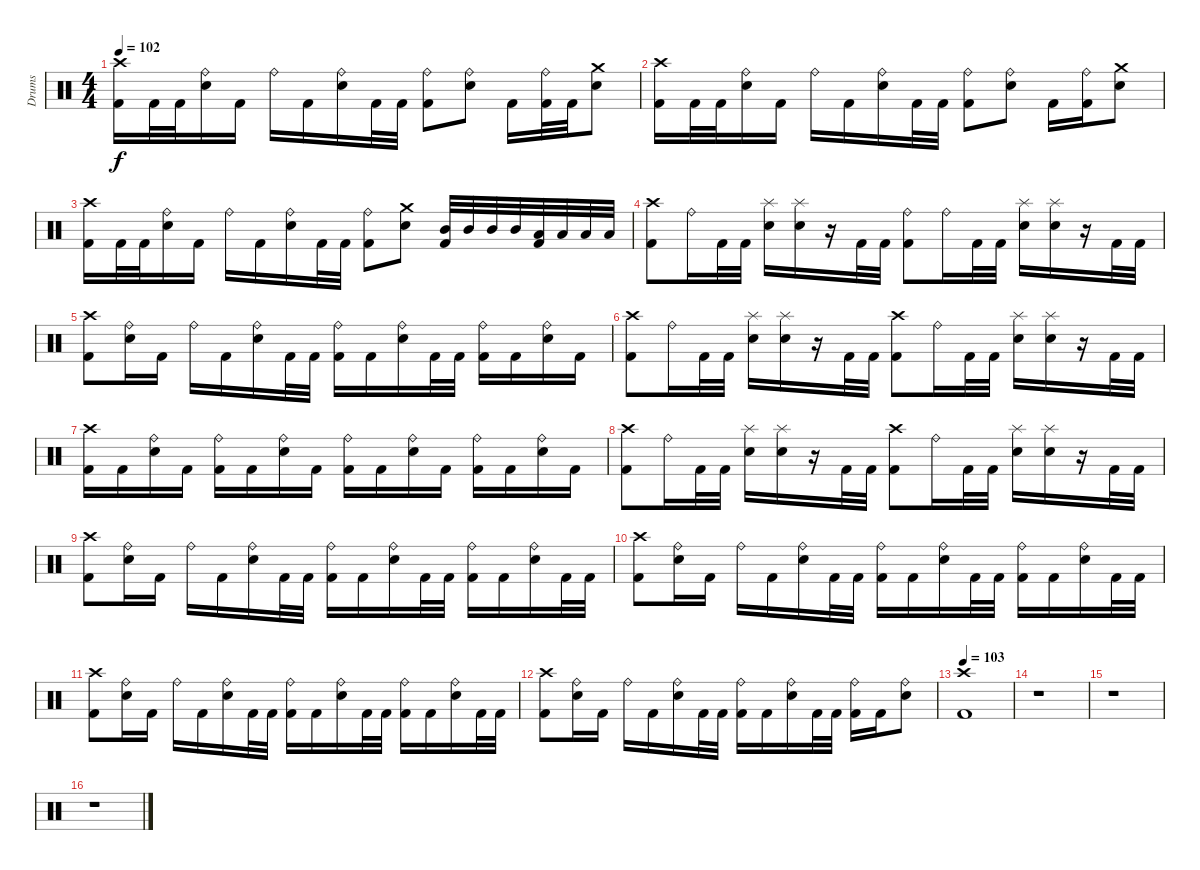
\track ("Drums" "Drums") {instrument percussion}
\staff {score}
\articulation defaults
\ts (4 4)
\tempo 102
\clef neutral
\ks c
("Crash high (hit)" "Kick (hit) 2").16{dy f} "Kick (hit) 2".32 "Kick (hit) 2".32 ("Ride (bell)" "Snare (hit) 2").16 "Kick (hit) 2".16 "Ride (bell)".16 "Kick (hit) 2".16 ("Ride (bell)" "Snare (hit) 2").16 "Kick (hit) 2".32 "Kick (hit) 2".32 ("Ride (bell)" "Kick (hit) 2").8 ("Ride (bell)" "Snare (hit) 2").8 "Kick (hit) 2".16 ("Ride (bell)" "Kick (hit) 2").32 "Kick (hit) 2".32 ("Crash medium (hit)" "Snare (hit) 2").8 |
("Crash high (hit)" "Kick (hit) 2").16 "Kick (hit) 2".32 "Kick (hit) 2".32 ("Ride (bell)" "Snare (hit) 2").16 "Kick (hit) 2".16 "Ride (bell)".16 "Kick (hit) 2".16 ("Ride (bell)" "Snare (hit) 2").16 "Kick (hit) 2".32 "Kick (hit) 2".32 ("Ride (bell)" "Kick (hit) 2").8 ("Ride (bell)" "Snare (hit) 2").8 "Kick (hit) 2".16 ("Ride (bell)" "Kick (hit) 2").16 ("Crash medium (hit)" "Snare (hit) 2").8 |
("Crash high (hit)" "Kick (hit) 2").16 "Kick (hit) 2".32 "Kick (hit) 2".32 ("Ride (bell)" "Snare (hit) 2").16 "Kick (hit) 2".16 "Ride (bell)".16 "Kick (hit) 2".16 ("Ride (bell)" "Snare (hit) 2").16 "Kick (hit) 2".32 "Kick (hit) 2".32 ("Ride (bell)" "Kick (hit) 2").8 ("Crash medium (hit)" "Snare (hit) 2").8 ("Mid Tom (hit)" "Kick (hit) 2").32 "Mid Tom (hit)".32 "Mid Tom (hit)".32 "Mid Tom (hit)".32 ("Low Tom (hit)" "Kick (hit) 2").32 "Low Tom (hit)".32 "Low Tom (hit)".32 "Low Tom (hit)".32 |
("Crash high (hit)" "Kick (hit) 2").8 "Ride (bell)".16 "Kick (hit) 2".32 "Kick (hit) 2".32 ("Splash (hit)" "Snare (hit) 2").16 ("Splash (hit)" "Snare (hit) 2").16 r.16 "Kick (hit) 2".32 "Kick (hit) 2".32 ("Ride (bell)" "Kick (hit) 2").8 "Ride (bell)".16 "Kick (hit) 2".32 "Kick (hit) 2".32 ("Splash (hit)" "Snare (hit) 2").16 ("Splash (hit)" "Snare (hit) 2").16 r.16 "Kick (hit) 2".32 "Kick (hit) 2".32 |
("Crash high (hit)" "Kick (hit) 2").8 ("Ride (bell)" "Snare (hit) 2").16 "Kick (hit) 2".16 "Ride (bell)".16 "Kick (hit) 2".16 ("Ride (bell)" "Snare (hit) 2").16 "Kick (hit) 2".32 "Kick (hit) 2".32 ("Ride (bell)" "Kick (hit) 2").16 "Kick (hit) 2".16 ("Ride (bell)" "Snare (hit) 2").16 "Kick (hit) 2".32 "Kick (hit) 2".32 ("Ride (bell)" "Kick (hit) 2").16 "Kick (hit) 2".16 ("Ride (bell)" "Snare (hit) 2").16 "Kick (hit) 2".16 |
("Crash high (hit)" "Kick (hit) 2").8 "Ride (bell)".16 "Kick (hit) 2".32 "Kick (hit) 2".32 ("Splash (hit)" "Snare (hit) 2").16 ("Splash (hit)" "Snare (hit) 2").16 r.16 "Kick (hit) 2".32 "Kick (hit) 2".32 ("Crash high (hit)" "Kick (hit) 2").8 "Ride (bell)".16 "Kick (hit) 2".32 "Kick (hit) 2".32 ("Splash (hit)" "Snare (hit) 2").16 ("Splash (hit)" "Snare (hit) 2").16 r.16 "Kick (hit) 2".32 "Kick (hit) 2".32 |
("Crash high (hit)" "Kick (hit) 2").16 "Kick (hit) 2".16 ("Ride (bell)" "Snare (hit) 2").16 "Kick (hit) 2".16 ("Ride (bell)" "Kick (hit) 2").16 "Kick (hit) 2".16 ("Ride (bell)" "Snare (hit) 2").16 "Kick (hit) 2".16 ("Ride (bell)" "Kick (hit) 2").16 "Kick (hit) 2".16 ("Ride (bell)" "Snare (hit) 2").16 "Kick (hit) 2".16 ("Ride (bell)" "Kick (hit) 2").16 "Kick (hit) 2".16 ("Ride (bell)" "Snare (hit) 2").16 "Kick (hit) 2".16 |
("Crash high (hit)" "Kick (hit) 2").8 "Ride (bell)".16 "Kick (hit) 2".32 "Kick (hit) 2".32 ("Splash (hit)" "Snare (hit) 2").16 ("Splash (hit)" "Snare (hit) 2").16 r.16 "Kick (hit) 2".32 "Kick (hit) 2".32 ("Crash high (hit)" "Kick (hit) 2").8 "Ride (bell)".16 "Kick (hit) 2".32 "Kick (hit) 2".32 ("Splash (hit)" "Snare (hit) 2").16 ("Splash (hit)" "Snare (hit) 2").16 r.16 "Kick (hit) 2".32 "Kick (hit) 2".32 |
("Crash high (hit)" "Kick (hit) 2").8 ("Ride (bell)" "Snare (hit) 2").16 "Kick (hit) 2".16 "Ride (bell)".16 "Kick (hit) 2".16 ("Ride (bell)" "Snare (hit) 2").16 "Kick (hit) 2".32 "Kick (hit) 2".32 ("Ride (bell)" "Kick (hit) 2").16 "Kick (hit) 2".16 ("Ride (bell)" "Snare (hit) 2").16 "Kick (hit) 2".32 "Kick (hit) 2".32 ("Ride (bell)" "Kick (hit) 2").16 "Kick (hit) 2".16 ("Ride (bell)" "Snare (hit) 2").16 "Kick (hit) 2".32 "Kick (hit) 2".32 |
("Crash high (hit)" "Kick (hit) 2").8 ("Ride (bell)" "Snare (hit) 2").16 "Kick (hit) 2".16 "Ride (bell)".16 "Kick (hit) 2".16 ("Ride (bell)" "Snare (hit) 2").16 "Kick (hit) 2".32 "Kick (hit) 2".32 ("Ride (bell)" "Kick (hit) 2").16 "Kick (hit) 2".16 ("Ride (bell)" "Snare (hit) 2").16 "Kick (hit) 2".32 "Kick (hit) 2".32 ("Ride (bell)" "Kick (hit) 2").16 "Kick (hit) 2".16 ("Ride (bell)" "Snare (hit) 2").16 "Kick (hit) 2".32 "Kick (hit) 2".32 |
("Crash high (hit)" "Kick (hit) 2").8 ("Ride (bell)" "Snare (hit) 2").16 "Kick (hit) 2".16 "Ride (bell)".16 "Kick (hit) 2".16 ("Ride (bell)" "Snare (hit) 2").16 "Kick (hit) 2".32 "Kick (hit) 2".32 ("Ride (bell)" "Kick (hit) 2").16 "Kick (hit) 2".16 ("Ride (bell)" "Snare (hit) 2").16 "Kick (hit) 2".32 "Kick (hit) 2".32 ("Ride (bell)" "Kick (hit) 2").16 "Kick (hit) 2".16 ("Ride (bell)" "Snare (hit) 2").16 "Kick (hit) 2".32 "Kick (hit) 2".32 |
("Crash high (hit)" "Kick (hit) 2").8 ("Ride (bell)" "Snare (hit) 2").16 "Kick (hit) 2".16 "Ride (bell)".16 "Kick (hit) 2".16 ("Ride (bell)" "Snare (hit) 2").16 "Kick (hit) 2".32 "Kick (hit) 2".32 ("Ride (bell)" "Kick (hit) 2").16 "Kick (hit) 2".16 ("Ride (bell)" "Snare (hit) 2").16 "Kick (hit) 2".32 "Kick (hit) 2".32 ("Ride (bell)" "Kick (hit) 2").16 "Kick (hit) 2".16 ("Ride (bell)" "Snare (hit) 2").8 |
\tempo 103
("Crash high (hit)" "Kick (hit) 2").1 |
r.1 |
r.1 |
r.1
